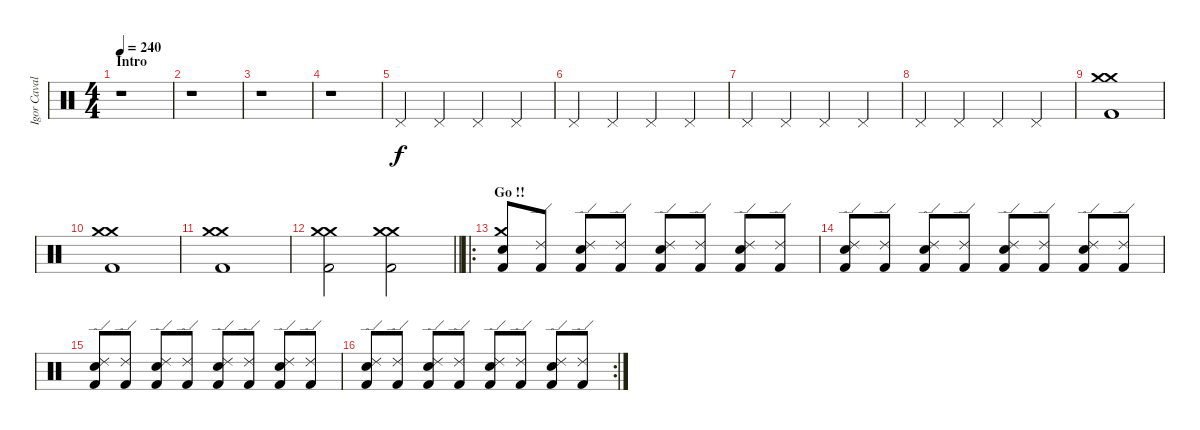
\track ("Igor Cavalera" "Igor Caval") {instrument percussion}
\staff {score}
\articulation defaults
\ts (4 4)
\section ("" "Intro")
\tempo 240
\clef neutral
\ks c
r.1{dy f} |
r.1 |
r.1 |
r.1 |
"Pedal Hi-Hat (hit)".4 "Pedal Hi-Hat (hit)".4 "Pedal Hi-Hat (hit)".4 "Pedal Hi-Hat (hit)".4 |
"Pedal Hi-Hat (hit)".4 "Pedal Hi-Hat (hit)".4 "Pedal Hi-Hat (hit)".4 "Pedal Hi-Hat (hit)".4 |
"Pedal Hi-Hat (hit)".4 "Pedal Hi-Hat (hit)".4 "Pedal Hi-Hat (hit)".4 "Pedal Hi-Hat (hit)".4 |
"Pedal Hi-Hat (hit)".4 "Pedal Hi-Hat (hit)".4 "Pedal Hi-Hat (hit)".4 "Pedal Hi-Hat (hit)".4 |
("Kick (hit) 2" "Crash medium (hit)" "Crash medium (hit)").1 |
("Kick (hit) 2" "Crash medium (hit)" "Crash medium (hit)").1 |
("Kick (hit) 2" "Crash medium (hit)" "Crash medium (hit)").1 |
\barLineRight lightlight
("Kick (hit) 2" "Crash medium (hit)" "Crash medium (hit)").2 ("Kick (hit) 2" "Crash medium (hit)" "Crash medium (hit)").2 |
\ro
\section ("" "Go !!")
("Kick (hit) 2" "Snare (hit) 2" "Crash medium (hit)").8 ("Kick (hit) 2" "Ride (edge) 2").8 ("Kick (hit) 2" "Snare (hit) 2" "Ride (edge) 2").8 ("Kick (hit) 2" "Ride (edge) 2").8 ("Kick (hit) 2" "Snare (hit) 2" "Ride (edge) 2").8 ("Kick (hit) 2" "Ride (edge) 2").8 ("Kick (hit) 2" "Snare (hit) 2" "Ride (edge) 2").8 ("Kick (hit) 2" "Ride (edge) 2").8 |
("Kick (hit) 2" "Snare (hit) 2" "Ride (edge) 2").8 ("Kick (hit) 2" "Ride (edge) 2").8 ("Kick (hit) 2" "Snare (hit) 2" "Ride (edge) 2").8 ("Kick (hit) 2" "Ride (edge) 2").8 ("Kick (hit) 2" "Snare (hit) 2" "Ride (edge) 2").8 ("Kick (hit) 2" "Ride (edge) 2").8 ("Kick (hit) 2" "Snare (hit) 2" "Ride (edge) 2").8 ("Kick (hit) 2" "Ride (edge) 2").8 |
("Kick (hit) 2" "Snare (hit) 2" "Ride (edge) 2").8 ("Kick (hit) 2" "Ride (edge) 2").8 ("Kick (hit) 2" "Snare (hit) 2" "Ride (edge) 2").8 ("Kick (hit) 2" "Ride (edge) 2").8 ("Kick (hit) 2" "Snare (hit) 2" "Ride (edge) 2").8 ("Kick (hit) 2" "Ride (edge) 2").8 ("Kick (hit) 2" "Snare (hit) 2" "Ride (edge) 2").8 ("Kick (hit) 2" "Ride (edge) 2").8 |
\rc 2
("Kick (hit) 2" "Snare (hit) 2" "Ride (edge) 2").8 ("Kick (hit) 2" "Ride (edge) 2").8 ("Kick (hit) 2" "Snare (hit) 2" "Ride (edge) 2").8 ("Kick (hit) 2" "Ride (edge) 2").8 ("Kick (hit) 2" "Snare (hit) 2" "Ride (edge) 2").8 ("Kick (hit) 2" "Ride (edge) 2").8 ("Kick (hit) 2" "Snare (hit) 2" "Ride (edge) 2").8 ("Kick (hit) 2" "Ride (edge) 2").8
